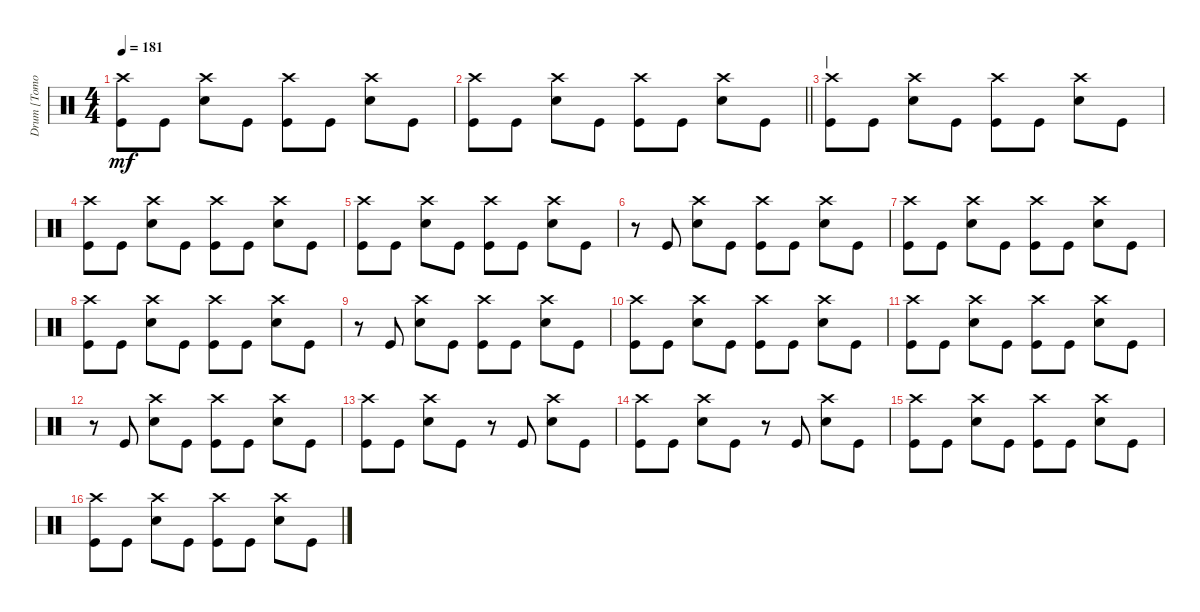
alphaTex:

\track ("Drum [Tomoya]" "Drum [Tomo") {instrument percussion}
\staff {score}
\articulation defaults
\ts (4 4)
\tempo 181
\clef neutral
\ks c
("Kick (hit)" "Crash high (hit)").8{dy mf} "Kick (hit)".8 ("Snare (hit) 2" "Crash high (hit)").8 "Kick (hit)".8 ("Kick (hit)" "Crash high (hit)").8 "Kick (hit)".8 ("Snare (hit) 2" "Crash high (hit)").8 "Kick (hit)".8 |
\barLineRight lightlight
("Kick (hit)" "Crash high (hit)").8 "Kick (hit)".8 ("Snare (hit) 2" "Crash high (hit)").8 "Kick (hit)".8 ("Kick (hit)" "Crash high (hit)").8 "Kick (hit)".8 ("Snare (hit) 2" "Crash high (hit)").8 "Kick (hit)".8 |
\section ("" "|")
("Kick (hit)" "Crash high (hit)").8 "Kick (hit)".8 ("Snare (hit) 2" "Crash high (hit)").8 "Kick (hit)".8 ("Kick (hit)" "Crash high (hit)").8 "Kick (hit)".8 ("Snare (hit) 2" "Crash high (hit)").8 "Kick (hit)".8 |
("Kick (hit)" "Crash high (hit)").8 "Kick (hit)".8 ("Snare (hit) 2" "Crash high (hit)").8 "Kick (hit)".8 ("Kick (hit)" "Crash high (hit)").8 "Kick (hit)".8 ("Snare (hit) 2" "Crash high (hit)").8 "Kick (hit)".8 |
("Kick (hit)" "Crash high (hit)").8 "Kick (hit)".8 ("Snare (hit) 2" "Crash high (hit)").8 "Kick (hit)".8 ("Kick (hit)" "Crash high (hit)").8 "Kick (hit)".8 ("Snare (hit) 2" "Crash high (hit)").8 "Kick (hit)".8 |
r.8 "Kick (hit)".8 ("Snare (hit) 2" "Crash high (hit)").8 "Kick (hit)".8 ("Kick (hit)" "Crash high (hit)").8 "Kick (hit)".8 ("Snare (hit) 2" "Crash high (hit)").8 "Kick (hit)".8 |
("Kick (hit)" "Crash high (hit)").8 "Kick (hit)".8 ("Snare (hit) 2" "Crash high (hit)").8 "Kick (hit)".8 ("Kick (hit)" "Crash high (hit)").8 "Kick (hit)".8 ("Snare (hit) 2" "Crash high (hit)").8 "Kick (hit)".8 |
("Kick (hit)" "Crash high (hit)").8 "Kick (hit)".8 ("Snare (hit) 2" "Crash high (hit)").8 "Kick (hit)".8 ("Kick (hit)" "Crash high (hit)").8 "Kick (hit)".8 ("Snare (hit) 2" "Crash high (hit)").8 "Kick (hit)".8 |
r.8 "Kick (hit)".8 ("Snare (hit) 2" "Crash high (hit)").8 "Kick (hit)".8 ("Kick (hit)" "Crash high (hit)").8 "Kick (hit)".8 ("Snare (hit) 2" "Crash high (hit)").8 "Kick (hit)".8 |
("Kick (hit)" "Crash high (hit)").8 "Kick (hit)".8 ("Snare (hit) 2" "Crash high (hit)").8 "Kick (hit)".8 ("Kick (hit)" "Crash high (hit)").8 "Kick (hit)".8 ("Snare (hit) 2" "Crash high (hit)").8 "Kick (hit)".8 |
("Kick (hit)" "Crash high (hit)").8 "Kick (hit)".8 ("Snare (hit) 2" "Crash high (hit)").8 "Kick (hit)".8 ("Kick (hit)" "Crash high (hit)").8 "Kick (hit)".8 ("Snare (hit) 2" "Crash high (hit)").8 "Kick (hit)".8 |
r.8 "Kick (hit)".8 ("Snare (hit) 2" "Crash high (hit)").8 "Kick (hit)".8 ("Kick (hit)" "Crash high (hit)").8 "Kick (hit)".8 ("Snare (hit) 2" "Crash high (hit)").8 "Kick (hit)".8 |
("Kick (hit)" "Crash high (hit)").8 "Kick (hit)".8 ("Snare (hit) 2" "Crash high (hit)").8 "Kick (hit)".8 r.8 "Kick (hit)".8 ("Snare (hit) 2" "Crash high (hit)").8 "Kick (hit)".8 |
("Kick (hit)" "Crash high (hit)").8 "Kick (hit)".8 ("Snare (hit) 2" "Crash high (hit)").8 "Kick (hit)".8 r.8 "Kick (hit)".8 ("Snare (hit) 2" "Crash high (hit)").8 "Kick (hit)".8 |
("Kick (hit)" "Crash high (hit)").8 "Kick (hit)".8 ("Snare (hit) 2" "Crash high (hit)").8 "Kick (hit)".8 ("Kick (hit)" "Crash high (hit)").8 "Kick (hit)".8 ("Snare (hit) 2" "Crash high (hit)").8 "Kick (hit)".8 |
("Kick (hit)" "Crash high (hit)").8 "Kick (hit)".8 ("Snare (hit) 2" "Crash high (hit)").8 "Kick (hit)".8 ("Kick (hit)" "Crash high (hit)").8 "Kick (hit)".8 ("Snare (hit) 2" "Crash high (hit)").8 "Kick (hit)".8
